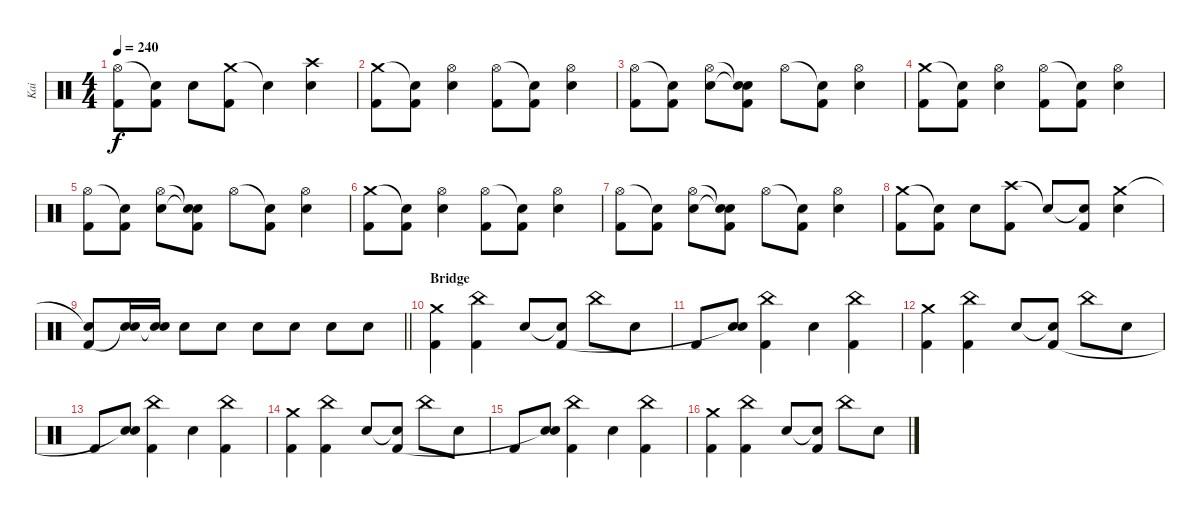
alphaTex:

\track ("Kai" "Kai") {instrument percussion}
\staff {score}
\articulation defaults
\ts (4 4)
\tempo 240
\clef neutral
\ks c
("Hi-Hat (open)" "Kick (hit) 2").8{dy f} ("Snare (hit)"{t} "Kick (hit) 2").8 "Snare (hit) 2".8 ("Crash medium (hit)" "Kick (hit) 2").8 "Snare (hit)"{t}.4 ("Crash high (hit)" "Snare (hit) 2").4 |
("Crash medium (hit)" "Kick (hit) 2").8 ("Snare (hit)"{t} "Kick (hit) 2").8 ("Hi-Hat (open)" "Snare (hit) 2").4 ("Hi-Hat (open)" "Kick (hit) 2").8 ("Snare (hit)"{t} "Kick (hit) 2").8 ("Hi-Hat (open)" "Snare (hit) 2").4 |
("Hi-Hat (open)" "Kick (hit) 2").8 ("Snare (hit)"{t} "Kick (hit) 2").8 ("Hi-Hat (open)" "Snare (hit) 2").8 ("Snare (hit)"{t} "Snare (hit)"{t} "Kick (hit) 2").8 "Hi-Hat (open)".8 ("Snare (hit)"{t} "Kick (hit) 2").8 ("Hi-Hat (open)" "Snare (hit) 2").4 |
("Crash medium (hit)" "Kick (hit) 2").8 ("Snare (hit)"{t} "Kick (hit) 2").8 ("Hi-Hat (open)" "Snare (hit) 2").4 ("Hi-Hat (open)" "Kick (hit) 2").8 ("Snare (hit)"{t} "Kick (hit) 2").8 ("Hi-Hat (open)" "Snare (hit) 2").4 |
("Hi-Hat (open)" "Kick (hit) 2").8 ("Snare (hit)"{t} "Kick (hit) 2").8 ("Hi-Hat (open)" "Snare (hit) 2").8 ("Snare (hit)"{t} "Snare (hit)"{t} "Kick (hit) 2").8 "Hi-Hat (open)".8 ("Snare (hit)"{t} "Kick (hit) 2").8 ("Hi-Hat (open)" "Snare (hit) 2").4 |
("Crash medium (hit)" "Kick (hit) 2").8 ("Snare (hit)"{t} "Kick (hit) 2").8 ("Hi-Hat (open)" "Snare (hit) 2").4 ("Hi-Hat (open)" "Kick (hit) 2").8 ("Snare (hit)"{t} "Kick (hit) 2").8 ("Hi-Hat (open)" "Snare (hit) 2").4 |
("Hi-Hat (open)" "Kick (hit) 2").8 ("Snare (hit)"{t} "Kick (hit) 2").8 ("Hi-Hat (open)" "Snare (hit) 2").8 ("Snare (hit)"{t} "Snare (hit)"{t} "Kick (hit) 2").8 "Hi-Hat (open)".8 ("Snare (hit)"{t} "Kick (hit) 2").8 ("Hi-Hat (open)" "Snare (hit) 2").4 |
("Crash medium (hit)" "Kick (hit) 2").8 ("Snare (hit)"{t} "Kick (hit) 2").8 "Snare (hit) 2".8 ("Crash high (hit)" "Kick (hit) 2").8 "Snare (hit)"{t}.8 ("Snare (hit)"{t} "Kick (hit) 2").8 ("Crash medium (hit)" "Snare (hit) 2").4 |
\barLineRight lightlight
("Snare (hit)"{t} "Kick (hit) 2").8 ("Snare (hit) 2" "Snare (hit)"{t}).16 ("Snare (hit) 2" "Snare (hit)"{t}).16 "Snare (hit) 2".8 "Snare (hit) 2".8 "Snare (hit) 2".8 "Snare (hit) 2".8 "Snare (hit) 2".8 "Snare (hit) 2".8 |
\section ("" "Bridge")
("Crash medium (hit)" "Kick (hit) 2").4 ("China (hit)" "Kick (hit) 2").4 "Snare (hit) 2".8 ("Snare (hit)"{t} "Kick (hit) 2").8 "China (hit)".8 "Snare (hit) 2".8 |
"Kick (hit) 2".8 ("Snare (hit) 2" "Snare (hit)"{t}).8 ("China (hit)" "Kick (hit) 2").4 "Snare (hit) 2".4 ("China (hit)" "Kick (hit) 2").4 |
("Crash medium (hit)" "Kick (hit) 2").4 ("China (hit)" "Kick (hit) 2").4 "Snare (hit) 2".8 ("Snare (hit)"{t} "Kick (hit) 2").8 "China (hit)".8 "Snare (hit) 2".8 |
"Kick (hit) 2".8 ("Snare (hit) 2" "Snare (hit)"{t}).8 ("China (hit)" "Kick (hit) 2").4 "Snare (hit) 2".4 ("China (hit)" "Kick (hit) 2").4 |
("Crash medium (hit)" "Kick (hit) 2").4 ("China (hit)" "Kick (hit) 2").4 "Snare (hit) 2".8 ("Snare (hit)"{t} "Kick (hit) 2").8 "China (hit)".8 "Snare (hit) 2".8 |
"Kick (hit) 2".8 ("Snare (hit) 2" "Snare (hit)"{t}).8 ("China (hit)" "Kick (hit) 2").4 "Snare (hit) 2".4 ("China (hit)" "Kick (hit) 2").4 |
("Crash medium (hit)" "Kick (hit) 2").4 ("China (hit)" "Kick (hit) 2").4 "Snare (hit) 2".8 ("Snare (hit)"{t} "Kick (hit) 2").8 "China (hit)".8 "Snare (hit) 2".8
